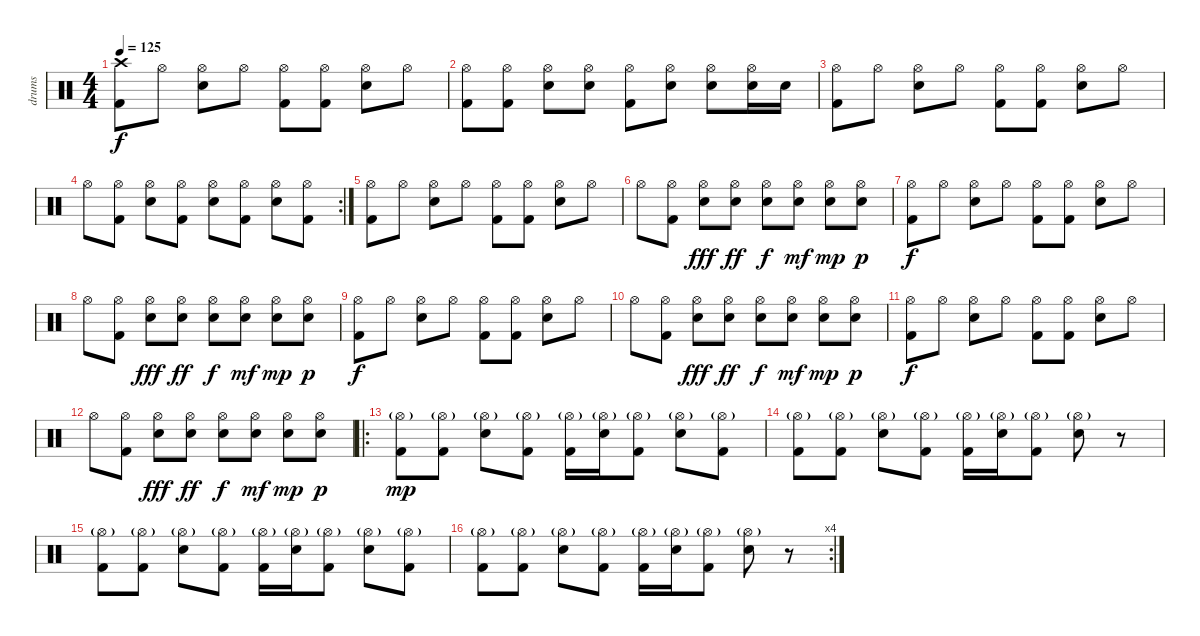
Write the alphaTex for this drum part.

\track ("drums" "drums") {instrument percussion}
\staff {score}
\articulation defaults
\ts (4 4)
\tempo 125
\clef neutral
\ks c
("Crash high (hit)" "Kick (hit) 2").8{dy f} "Hi-Hat (open)".8 ("Hi-Hat (open)" "Electric Snare (hit)").8 "Hi-Hat (open)".8 ("Hi-Hat (open)" "Kick (hit) 2").8 ("Hi-Hat (open)" "Kick (hit) 2").8 ("Hi-Hat (open)" "Electric Snare (hit)").8 "Hi-Hat (open)".8 |
("Hi-Hat (open)" "Kick (hit) 2").8 ("Hi-Hat (open)" "Kick (hit) 2").8 ("Hi-Hat (open)" "Electric Snare (hit)").8 ("Hi-Hat (open)" "Electric Snare (hit)").8 ("Hi-Hat (open)" "Kick (hit) 2").8 ("Hi-Hat (open)" "Electric Snare (hit)").8 ("Hi-Hat (open)" "Electric Snare (hit)").8 ("Hi-Hat (open)" "Electric Snare (hit)").16 "Electric Snare (hit)".16 |
("Hi-Hat (open)" "Kick (hit) 2").8 "Hi-Hat (open)".8 ("Hi-Hat (open)" "Electric Snare (hit)").8 "Hi-Hat (open)".8 ("Hi-Hat (open)" "Kick (hit) 2").8 ("Hi-Hat (open)" "Kick (hit) 2").8 ("Hi-Hat (open)" "Electric Snare (hit)").8 "Hi-Hat (open)".8 |
\rc 2 "Hi-Hat (open)".8
("Hi-Hat (open)" "Kick (hit) 2").8 ("Hi-Hat (open)" "Electric Snare (hit)").8 ("Hi-Hat (open)" "Kick (hit) 2").8 ("Hi-Hat (open)" "Electric Snare (hit)").8 ("Hi-Hat (open)" "Kick (hit) 2").8 ("Hi-Hat (open)" "Electric Snare (hit)").8 ("Hi-Hat (open)" "Kick (hit) 2").8 |
("Hi-Hat (open)" "Kick (hit) 2").8 "Hi-Hat (open)".8 ("Hi-Hat (open)" "Electric Snare (hit)").8 "Hi-Hat (open)".8 ("Hi-Hat (open)" "Kick (hit) 2").8 ("Hi-Hat (open)" "Kick (hit) 2").8 ("Hi-Hat (open)" "Electric Snare (hit)").8 "Hi-Hat (open)".8 |
"Hi-Hat (open)".8 ("Hi-Hat (open)" "Kick (hit) 2").8 ("Hi-Hat (open)" "Electric Snare (hit)").8{dy fff} ("Hi-Hat (open)" "Electric Snare (hit)").8{dy ff} ("Hi-Hat (open)" "Electric Snare (hit)").8{dy f} ("Hi-Hat (open)" "Electric Snare (hit)").8{dy mf} ("Hi-Hat (open)" "Electric Snare (hit)").8{dy mp} ("Hi-Hat (open)" "Electric Snare (hit)").8{dy p} |
("Hi-Hat (open)" "Kick (hit) 2").8{dy f} "Hi-Hat (open)".8 ("Hi-Hat (open)" "Electric Snare (hit)").8 "Hi-Hat (open)".8 ("Hi-Hat (open)" "Kick (hit) 2").8 ("Hi-Hat (open)" "Kick (hit) 2").8 ("Hi-Hat (open)" "Electric Snare (hit)").8 "Hi-Hat (open)".8 |
"Hi-Hat (open)".8 ("Hi-Hat (open)" "Kick (hit) 2").8 ("Hi-Hat (open)" "Electric Snare (hit)").8{dy fff} ("Hi-Hat (open)" "Electric Snare (hit)").8{dy ff} ("Hi-Hat (open)" "Electric Snare (hit)").8{dy f} ("Hi-Hat (open)" "Electric Snare (hit)").8{dy mf} ("Hi-Hat (open)" "Electric Snare (hit)").8{dy mp} ("Hi-Hat (open)" "Electric Snare (hit)").8{dy p} |
("Hi-Hat (open)" "Kick (hit) 2").8{dy f} "Hi-Hat (open)".8 ("Hi-Hat (open)" "Electric Snare (hit)").8 "Hi-Hat (open)".8 ("Hi-Hat (open)" "Kick (hit) 2").8 ("Hi-Hat (open)" "Kick (hit) 2").8 ("Hi-Hat (open)" "Electric Snare (hit)").8 "Hi-Hat (open)".8 |
"Hi-Hat (open)".8 ("Hi-Hat (open)" "Kick (hit) 2").8 ("Hi-Hat (open)" "Electric Snare (hit)").8{dy fff} ("Hi-Hat (open)" "Electric Snare (hit)").8{dy ff} ("Hi-Hat (open)" "Electric Snare (hit)").8{dy f} ("Hi-Hat (open)" "Electric Snare (hit)").8{dy mf} ("Hi-Hat (open)" "Electric Snare (hit)").8{dy mp} ("Hi-Hat (open)" "Electric Snare (hit)").8{dy p} |
("Hi-Hat (open)" "Kick (hit) 2").8{dy f} "Hi-Hat (open)".8 ("Hi-Hat (open)" "Electric Snare (hit)").8 "Hi-Hat (open)".8 ("Hi-Hat (open)" "Kick (hit) 2").8 ("Hi-Hat (open)" "Kick (hit) 2").8 ("Hi-Hat (open)" "Electric Snare (hit)").8 "Hi-Hat (open)".8 |
"Hi-Hat (open)".8 ("Hi-Hat (open)" "Kick (hit) 2").8 ("Hi-Hat (open)" "Electric Snare (hit)").8{dy fff} ("Hi-Hat (open)" "Electric Snare (hit)").8{dy ff} ("Hi-Hat (open)" "Electric Snare (hit)").8{dy f} ("Hi-Hat (open)" "Electric Snare (hit)").8{dy mf} ("Hi-Hat (open)" "Electric Snare (hit)").8{dy mp} ("Hi-Hat (open)" "Electric Snare (hit)").8{dy p} |
\ro
("Hi-Hat (open)"{g} "Kick (hit) 2").8{dy mp} ("Hi-Hat (open)"{g} "Kick (hit) 2").8 ("Hi-Hat (open)"{g} "Electric Snare (hit)").8 ("Hi-Hat (open)"{g} "Kick (hit) 2").8 ("Hi-Hat (open)"{g} "Kick (hit) 2").16 ("Hi-Hat (open)"{g} "Electric Snare (hit)").16 ("Hi-Hat (open)"{g} "Kick (hit) 2").8 ("Hi-Hat (open)"{g} "Electric Snare (hit)").8 ("Hi-Hat (open)"{g} "Kick (hit) 2").8 |
("Hi-Hat (open)"{g} "Kick (hit) 2").8 ("Hi-Hat (open)"{g} "Kick (hit) 2").8 ("Hi-Hat (open)"{g} "Electric Snare (hit)").8 ("Hi-Hat (open)"{g} "Kick (hit) 2").8 ("Hi-Hat (open)"{g} "Kick (hit) 2").16 ("Hi-Hat (open)"{g} "Electric Snare (hit)").16 ("Hi-Hat (open)"{g} "Kick (hit) 2").8 ("Hi-Hat (open)"{g} "Electric Snare (hit)").8 r.8 |
("Hi-Hat (open)"{g} "Kick (hit) 2").8 ("Hi-Hat (open)"{g} "Kick (hit) 2").8 ("Hi-Hat (open)"{g} "Electric Snare (hit)").8 ("Hi-Hat (open)"{g} "Kick (hit) 2").8 ("Hi-Hat (open)"{g} "Kick (hit) 2").16 ("Hi-Hat (open)"{g} "Electric Snare (hit)").16 ("Hi-Hat (open)"{g} "Kick (hit) 2").8 ("Hi-Hat (open)"{g} "Electric Snare (hit)").8 ("Hi-Hat (open)"{g} "Kick (hit) 2").8 |
\rc 4
("Hi-Hat (open)"{g} "Kick (hit) 2").8 ("Hi-Hat (open)"{g} "Kick (hit) 2").8 ("Hi-Hat (open)"{g} "Electric Snare (hit)").8 ("Hi-Hat (open)"{g} "Kick (hit) 2").8 ("Hi-Hat (open)"{g} "Kick (hit) 2").16 ("Hi-Hat (open)"{g} "Electric Snare (hit)").16 ("Hi-Hat (open)"{g} "Kick (hit) 2").8 ("Hi-Hat (open)"{g} "Electric Snare (hit)").8 r.8
